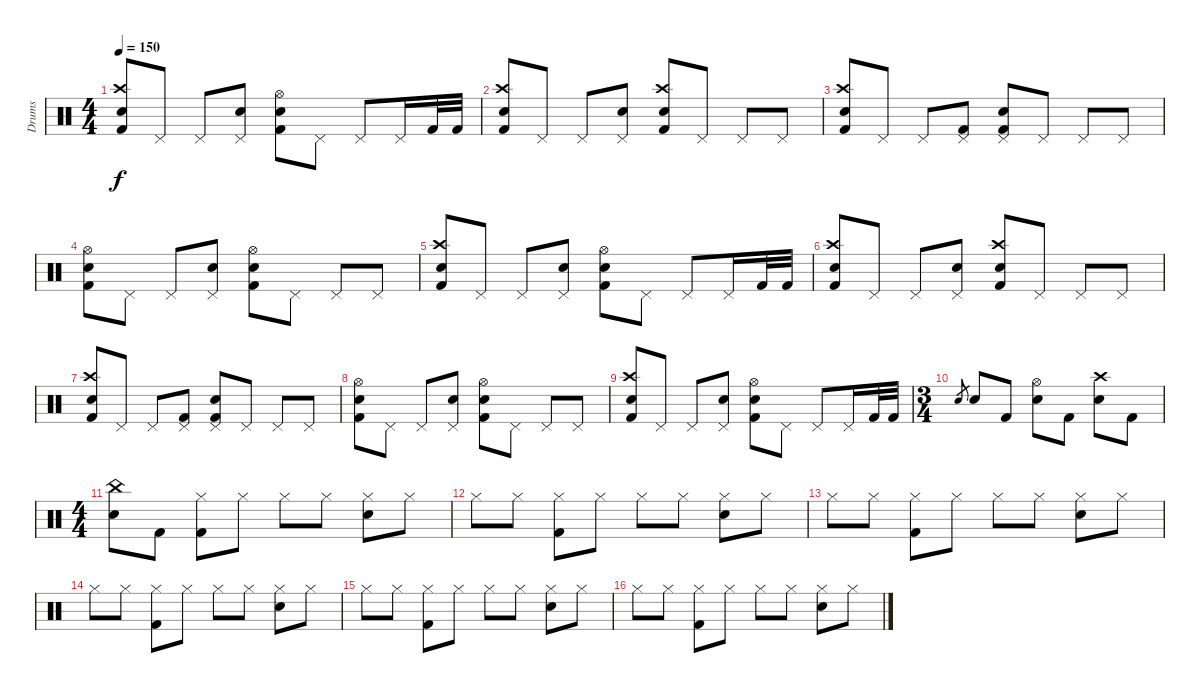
\track ("Drums" "Drums") {instrument percussion}
\staff {score}
\articulation defaults
\ts (4 4)
\tempo 150
\clef neutral
\ks c
("Snare (hit) 2" "Crash high (hit)" "Kick (hit) 2").8{dy f} "Pedal Hi-Hat (hit)".8 "Pedal Hi-Hat (hit)".8 ("Pedal Hi-Hat (hit)" "Snare (hit) 2").8 ("Snare (hit) 2" "Hi-Hat (open)" "Kick (hit) 2").8 "Pedal Hi-Hat (hit)".8 "Pedal Hi-Hat (hit)".8 "Pedal Hi-Hat (hit)".16 "Kick (hit) 2".32 "Kick (hit) 2".32 |
("Snare (hit) 2" "Crash high (hit)" "Kick (hit) 2").8 "Pedal Hi-Hat (hit)".8 "Pedal Hi-Hat (hit)".8 ("Pedal Hi-Hat (hit)" "Snare (hit) 2").8 ("Snare (hit) 2" "Crash high (hit)" "Kick (hit) 2").8 "Pedal Hi-Hat (hit)".8 "Pedal Hi-Hat (hit)".8 "Pedal Hi-Hat (hit)".8 |
("Snare (hit) 2" "Crash high (hit)" "Kick (hit) 2").8 "Pedal Hi-Hat (hit)".8 "Pedal Hi-Hat (hit)".8 ("Pedal Hi-Hat (hit)" "Kick (hit) 2").8 ("Snare (hit) 2" "Pedal Hi-Hat (hit)" "Kick (hit) 2").8 "Pedal Hi-Hat (hit)".8 "Pedal Hi-Hat (hit)".8 "Pedal Hi-Hat (hit)".8 |
("Snare (hit) 2" "Hi-Hat (open)" "Kick (hit) 2").8 "Pedal Hi-Hat (hit)".8 "Pedal Hi-Hat (hit)".8 ("Pedal Hi-Hat (hit)" "Snare (hit) 2").8 ("Snare (hit) 2" "Hi-Hat (open)" "Kick (hit) 2").8 "Pedal Hi-Hat (hit)".8 "Pedal Hi-Hat (hit)".8 "Pedal Hi-Hat (hit)".8 |
("Snare (hit) 2" "Crash high (hit)" "Kick (hit) 2").8 "Pedal Hi-Hat (hit)".8 "Pedal Hi-Hat (hit)".8 ("Pedal Hi-Hat (hit)" "Snare (hit) 2").8 ("Snare (hit) 2" "Hi-Hat (open)" "Kick (hit) 2").8 "Pedal Hi-Hat (hit)".8 "Pedal Hi-Hat (hit)".8 "Pedal Hi-Hat (hit)".16 "Kick (hit) 2".32 "Kick (hit) 2".32 |
("Snare (hit) 2" "Crash high (hit)" "Kick (hit) 2").8 "Pedal Hi-Hat (hit)".8 "Pedal Hi-Hat (hit)".8 ("Pedal Hi-Hat (hit)" "Snare (hit) 2").8 ("Snare (hit) 2" "Crash high (hit)" "Kick (hit) 2").8 "Pedal Hi-Hat (hit)".8 "Pedal Hi-Hat (hit)".8 "Pedal Hi-Hat (hit)".8 |
("Snare (hit) 2" "Crash high (hit)" "Kick (hit) 2").8 "Pedal Hi-Hat (hit)".8 "Pedal Hi-Hat (hit)".8 ("Pedal Hi-Hat (hit)" "Kick (hit) 2").8 ("Snare (hit) 2" "Pedal Hi-Hat (hit)" "Kick (hit) 2").8 "Pedal Hi-Hat (hit)".8 "Pedal Hi-Hat (hit)".8 "Pedal Hi-Hat (hit)".8 |
("Snare (hit) 2" "Hi-Hat (open)" "Kick (hit) 2").8 "Pedal Hi-Hat (hit)".8 "Pedal Hi-Hat (hit)".8 ("Pedal Hi-Hat (hit)" "Snare (hit) 2").8 ("Snare (hit) 2" "Hi-Hat (open)" "Kick (hit) 2").8 "Pedal Hi-Hat (hit)".8 "Pedal Hi-Hat (hit)".8 "Pedal Hi-Hat (hit)".8 |
("Snare (hit) 2" "Crash high (hit)" "Kick (hit) 2").8 "Pedal Hi-Hat (hit)".8 "Pedal Hi-Hat (hit)".8 ("Pedal Hi-Hat (hit)" "Snare (hit) 2").8 ("Snare (hit) 2" "Hi-Hat (open)" "Kick (hit) 2").8 "Pedal Hi-Hat (hit)".8 "Pedal Hi-Hat (hit)".8 "Pedal Hi-Hat (hit)".16 "Kick (hit) 2".32 "Kick (hit) 2".32 |
\ts (3 4)
"Snare (hit) 2".8{gr} "Snare (hit) 2".8 "Kick (hit) 2".8 ("Hi-Hat (open)" "Snare (hit) 2").8 "Kick (hit) 2".8 ("Crash high (hit)" "Snare (hit) 2").8 "Kick (hit) 2".8 |
\ts (4 4)
("China (hit)" "Snare (hit) 2").8 "Kick (hit) 2".8 ("Kick (hit) 2" "Hi-Hat (closed)").8 "Hi-Hat (closed)".8 "Hi-Hat (closed)".8 "Hi-Hat (closed)".8 ("Snare (hit) 2" "Hi-Hat (closed)").8 "Hi-Hat (closed)".8 |
"Hi-Hat (closed)".8 "Hi-Hat (closed)".8 ("Kick (hit) 2" "Hi-Hat (closed)").8 "Hi-Hat (closed)".8 "Hi-Hat (closed)".8 "Hi-Hat (closed)".8 ("Snare (hit) 2" "Hi-Hat (closed)").8 "Hi-Hat (closed)".8 |
"Hi-Hat (closed)".8 "Hi-Hat (closed)".8 ("Kick (hit) 2" "Hi-Hat (closed)").8 "Hi-Hat (closed)".8 "Hi-Hat (closed)".8 "Hi-Hat (closed)".8 ("Snare (hit) 2" "Hi-Hat (closed)").8 "Hi-Hat (closed)".8 |
"Hi-Hat (closed)".8 "Hi-Hat (closed)".8 ("Kick (hit) 2" "Hi-Hat (closed)").8 "Hi-Hat (closed)".8 "Hi-Hat (closed)".8 "Hi-Hat (closed)".8 ("Snare (hit) 2" "Hi-Hat (closed)").8 "Hi-Hat (closed)".8 |
"Hi-Hat (closed)".8 "Hi-Hat (closed)".8 ("Kick (hit) 2" "Hi-Hat (closed)").8 "Hi-Hat (closed)".8 "Hi-Hat (closed)".8 "Hi-Hat (closed)".8 ("Snare (hit) 2" "Hi-Hat (closed)").8 "Hi-Hat (closed)".8 |
"Hi-Hat (closed)".8 "Hi-Hat (closed)".8 ("Kick (hit) 2" "Hi-Hat (closed)").8 "Hi-Hat (closed)".8 "Hi-Hat (closed)".8 "Hi-Hat (closed)".8 ("Snare (hit) 2" "Hi-Hat (closed)").8 "Hi-Hat (closed)".8
